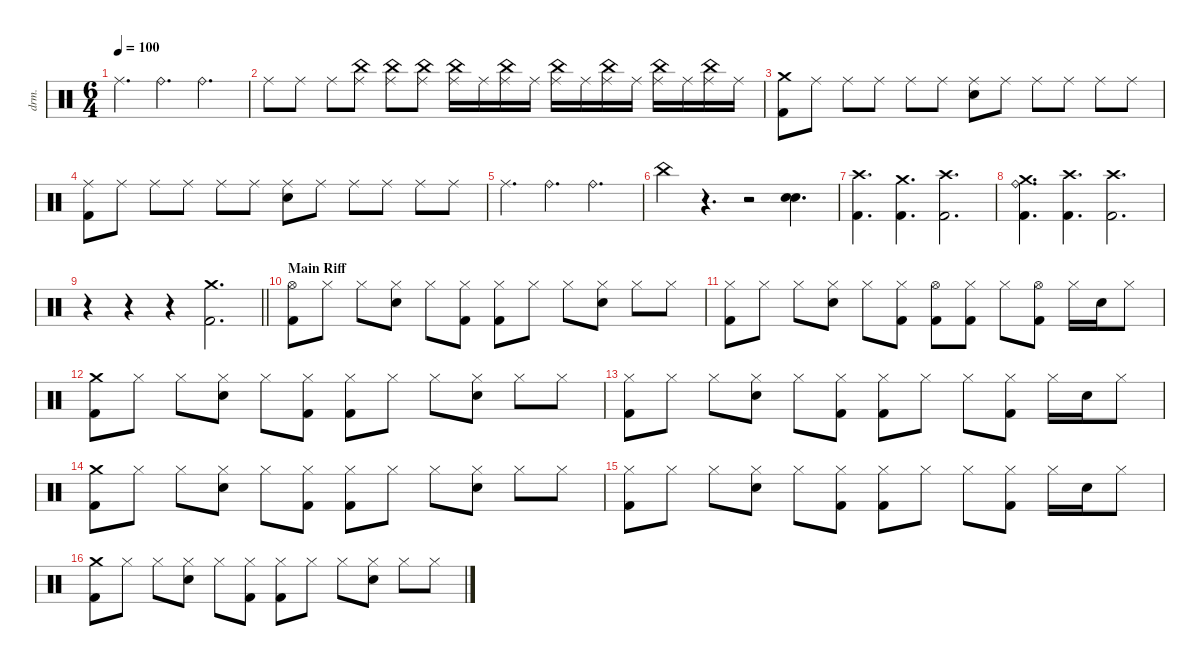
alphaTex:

\defaultSystemsLayout 4
\hideDynamics
\bracketExtendMode nobrackets
\otherSystemsTrackNameOrientation horizontal
\track ("Percussions" "drm.") {instrument percussion}
\staff {score}
\articulation defaults
\ts (6 4)
\tempo 100
\clef neutral
\ks c "Ride (middle)".4{d dy f beam Down} "Ride (bell)".4{d beam Down} "Ride (bell)".2{d beam Down}
|
"Ride (middle)".8{beam Down} "Ride (middle)".8{beam Down} "Ride (middle)".8{beam Down} ("China (hit)" "Ride (middle)").8{dy ppp beam Down} ("China (hit)" "Ride (middle)").8{dy pp beam Down} ("China (hit)" "Ride (middle)").8{dy p beam Down} ("China (hit)" "Ride (middle)").16{dy mp beam Down} "Ride (middle)".16{dy f beam Down} ("China (hit)" "Ride (middle)").16{dy mf beam Down} "Ride (middle)".16{dy f beam Down} ("China (hit)" "Ride (middle)").16{beam Down} "Ride (middle)".16{beam Down} ("China (hit)" "Ride (middle)").16{dy ff beam Down} "Ride (middle)".16{dy f beam Down} ("China (hit)" "Ride (middle)").16{dy ff beam Down} "Ride (middle)".16{dy f beam Down} ("China (hit)" "Ride (middle)").16{dy fff beam Down} "Ride (middle)".16{dy f beam Down} |
("Crash medium (hit)" "Kick (hit) 2").8{beam Down} "Ride (middle)".8{beam Down} "Ride (middle)".8{beam Down} "Ride (middle)".8{beam Down} "Ride (middle)".8{beam Down} "Ride (middle)".8{beam Down} ("Snare (hit) 2" "Ride (middle)").8{dy fff beam Down} "Ride (middle)".8{dy f beam Down} "Ride (middle)".8{beam Down} "Ride (middle)".8{beam Down} "Ride (middle)".8{beam Down} "Ride (middle)".8{beam Down} |
("Kick (hit) 2" "Ride (middle)").8{beam Down} "Ride (middle)".8{beam Down} "Ride (middle)".8{beam Down} "Ride (middle)".8{beam Down} "Ride (middle)".8{beam Down} "Ride (middle)".8{beam Down} ("Snare (hit) 2" "Ride (middle)").8{dy fff beam Down} "Ride (middle)".8{dy f beam Down} "Ride (middle)".8{beam Down} "Ride (middle)".8{beam Down} "Ride (middle)".8{beam Down} "Ride (middle)".8{beam Down} |
"Ride (middle)".4{d beam Down} "Ride (bell)".4{d beam Down} "Ride (bell)".2{d beam Down} |
"China (hit)".4{dy fff beam Down} r.4{d beam Down} r.2{beam Down} ("Snare (hit) 2" "Snare (hit) 2").4{d dy f beam Down} |
("Crash high (hit)" "Kick (hit) 2").4{d beam Down} ("Crash medium (hit)" "Kick (hit) 2").4{d beam Down} ("Crash high (hit)" "Kick (hit) 2").2{d beam Down} |
("Crash medium (hit)" "Ride (bell)" "Kick (hit) 2").4{d beam Down} ("Crash high (hit)" "Kick (hit) 2").4{d beam Down} ("Crash high (hit)" "Kick (hit) 2").2{d beam Down} |
\barLineRight lightlight
r.4{beam Down} r.4{beam Down} r.4{beam Down} ("Crash medium (hit)" "Kick (hit) 2").2{d beam Down} |
\section ("" "Main Riff")
("Hi-Hat (open)" "Kick (hit) 2").8{beam Down} "Hi-Hat (closed)".8{beam Down} "Hi-Hat (closed)".8{beam Down} ("Snare (hit) 2" "Hi-Hat (closed)").8{beam Down} "Hi-Hat (closed)".8{beam Down} ("Hi-Hat (closed)" "Kick (hit) 2").8{beam Down} ("Hi-Hat (closed)" "Kick (hit) 2").8{beam Down} "Hi-Hat (closed)".8{beam Down} "Hi-Hat (closed)".8{beam Down} ("Snare (hit) 2" "Hi-Hat (closed)").8{beam Down} "Hi-Hat (closed)".8{beam Down} "Hi-Hat (closed)".8{beam Down} |
("Hi-Hat (closed)" "Kick (hit) 2").8{beam Down} "Hi-Hat (closed)".8{beam Down} "Hi-Hat (closed)".8{beam Down} ("Snare (hit) 2" "Hi-Hat (closed)").8{beam Down} "Hi-Hat (closed)".8{beam Down} ("Hi-Hat (closed)" "Kick (hit) 2").8{beam Down} ("Hi-Hat (open)" "Kick (hit) 2").8{beam Down} ("Hi-Hat (closed)" "Kick (hit) 2").8{beam Down} "Hi-Hat (closed)".8{beam Down} ("Hi-Hat (open)" "Kick (hit) 2").8{beam Down} "Hi-Hat (closed)".16{beam Down} "Snare (hit) 2".16{beam Down} "Hi-Hat (closed)".8{beam Down} |
("Crash medium (hit)" "Kick (hit) 2").8{beam Down} "Hi-Hat (closed)".8{beam Down} "Hi-Hat (closed)".8{beam Down} ("Snare (hit) 2" "Hi-Hat (closed)").8{beam Down} "Hi-Hat (closed)".8{beam Down} ("Hi-Hat (closed)" "Kick (hit) 2").8{beam Down} ("Hi-Hat (closed)" "Kick (hit) 2").8{beam Down} "Hi-Hat (closed)".8{beam Down} "Hi-Hat (closed)".8{beam Down} ("Snare (hit) 2" "Hi-Hat (closed)").8{beam Down} "Hi-Hat (closed)".8{beam Down} "Hi-Hat (closed)".8{beam Down} |
("Hi-Hat (closed)" "Kick (hit) 2").8{beam Down} "Hi-Hat (closed)".8{beam Down} "Hi-Hat (closed)".8{beam Down} ("Snare (hit) 2" "Hi-Hat (closed)").8{beam Down} "Hi-Hat (closed)".8{beam Down} ("Hi-Hat (closed)" "Kick (hit) 2").8{beam Down} ("Hi-Hat (closed)" "Kick (hit) 2").8{beam Down} "Hi-Hat (closed)".8{beam Down} "Hi-Hat (closed)".8{beam Down} ("Hi-Hat (closed)" "Kick (hit) 2").8{beam Down} "Hi-Hat (closed)".16{beam Down} "Snare (hit) 2".16{beam Down} "Hi-Hat (closed)".8{beam Down} |
("Crash medium (hit)" "Kick (hit) 2").8{beam Down} "Hi-Hat (closed)".8{beam Down} "Hi-Hat (closed)".8{beam Down} ("Snare (hit) 2" "Hi-Hat (closed)").8{beam Down} "Hi-Hat (closed)".8{beam Down} ("Hi-Hat (closed)" "Kick (hit) 2").8{beam Down} ("Hi-Hat (closed)" "Kick (hit) 2").8{beam Down} "Hi-Hat (closed)".8{beam Down} "Hi-Hat (closed)".8{beam Down} ("Snare (hit) 2" "Hi-Hat (closed)").8{beam Down} "Hi-Hat (closed)".8{beam Down} "Hi-Hat (closed)".8{beam Down} |
("Hi-Hat (closed)" "Kick (hit) 2").8{beam Down} "Hi-Hat (closed)".8{beam Down} "Hi-Hat (closed)".8{beam Down} ("Snare (hit) 2" "Hi-Hat (closed)").8{beam Down} "Hi-Hat (closed)".8{beam Down} ("Hi-Hat (closed)" "Kick (hit) 2").8{beam Down} ("Hi-Hat (closed)" "Kick (hit) 2").8{beam Down} "Hi-Hat (closed)".8{beam Down} "Hi-Hat (closed)".8{beam Down} ("Hi-Hat (closed)" "Kick (hit) 2").8{beam Down} "Hi-Hat (closed)".16{beam Down} "Snare (hit) 2".16{beam Down} "Hi-Hat (closed)".8{beam Down} |
("Crash medium (hit)" "Kick (hit) 2").8{beam Down} "Hi-Hat (closed)".8{beam Down} "Hi-Hat (closed)".8{beam Down} ("Snare (hit) 2" "Hi-Hat (closed)").8{beam Down} "Hi-Hat (closed)".8{beam Down} ("Hi-Hat (closed)" "Kick (hit) 2").8{beam Down} ("Hi-Hat (closed)" "Kick (hit) 2").8{beam Down} "Hi-Hat (closed)".8{beam Down} "Hi-Hat (closed)".8{beam Down} ("Snare (hit) 2" "Hi-Hat (closed)").8{beam Down} "Hi-Hat (closed)".8{beam Down} "Hi-Hat (closed)".8{beam Down}
